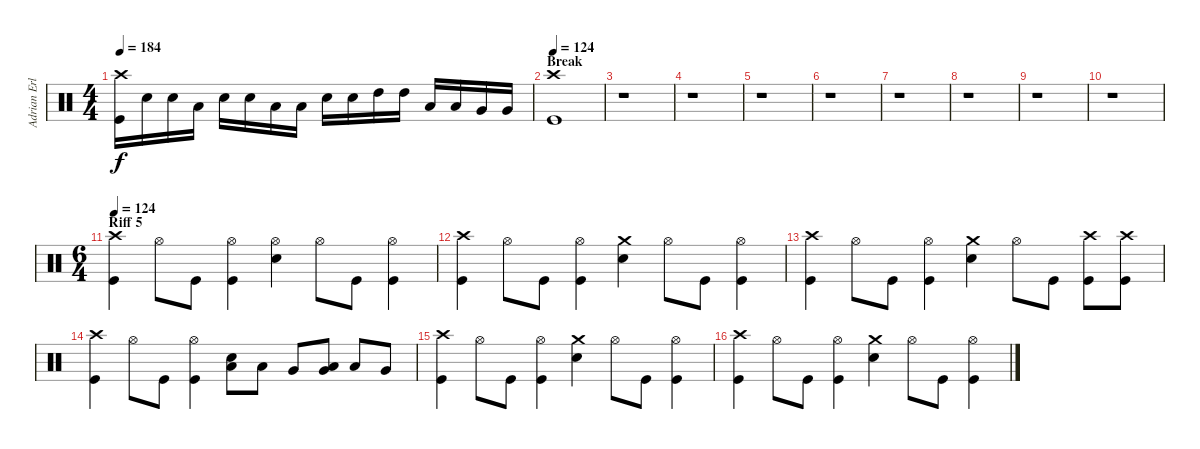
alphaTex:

\track ("Adrian Erlandsson (Norseman of the Apoca" "Adrian Erl") {instrument percussion}
\staff {score}
\articulation defaults
\ts (4 4)
\tempo 184
\clef neutral
\ks c
("Crash high (hit)" "Kick (hit)").16{dy f} "Electric Snare (hit)".16 "Electric Snare (hit)".16 "Low Tom (hit)".16 "Electric Snare (hit)".16 "Electric Snare (hit)".16 "Low Tom (hit)".16 "Low Tom (hit)".16 "Electric Snare (hit)".16 "Electric Snare (hit)".16 "High Tom (hit)".16 "High Tom (hit)".16 "Low Tom (hit)".16 "Low Tom (hit)".16 "Very Low Tom (hit)".16 "Very Low Tom (hit)".16 |
\section ("" "Break")
\tempo 124
("Crash high (hit)" "Kick (hit)").1 |
r.1 |
r.1 |
r.1 |
r.1 |
r.1 |
r.1 |
r.1 |
r.1 |
\ts (6 4)
\section ("" "Riff 5")
\tempo 124
("Crash high (hit)" "Kick (hit)").4 "Hi-Hat (open)".8 "Kick (hit)".8 ("Hi-Hat (open)" "Kick (hit)").4 ("Hi-Hat (open)" "Electric Snare (hit)").4 "Hi-Hat (open)".8 "Kick (hit)".8 ("Hi-Hat (open)" "Kick (hit)").4 |
("Crash high (hit)" "Kick (hit)").4 "Hi-Hat (open)".8 "Kick (hit)".8 ("Hi-Hat (open)" "Kick (hit)").4 ("Crash medium (hit)" "Electric Snare (hit)").4 "Hi-Hat (open)".8 "Kick (hit)".8 ("Hi-Hat (open)" "Kick (hit)").4 |
("Crash high (hit)" "Kick (hit)").4 "Hi-Hat (open)".8 "Kick (hit)".8 ("Hi-Hat (open)" "Kick (hit)").4 ("Crash medium (hit)" "Electric Snare (hit)").4 "Hi-Hat (open)".8 "Kick (hit)".8 ("Crash high (hit)" "Kick (hit)").8 ("Crash high (hit)" "Kick (hit)").8 |
("Crash high (hit)" "Kick (hit)").4 "Hi-Hat (open)".8 "Kick (hit)".8 ("Hi-Hat (open)" "Kick (hit)").4 ("Low Tom (hit)" "Electric Snare (hit)").8 "Low Tom (hit)".8 "Very Low Tom (hit)".8 ("Low Tom (hit)" "Very Low Tom (hit)").8{bu 120} "Low Tom (hit)".8 "Very Low Tom (hit)".8 |
("Crash high (hit)" "Kick (hit)").4 "Hi-Hat (open)".8 "Kick (hit)".8 ("Hi-Hat (open)" "Kick (hit)").4 ("Crash medium (hit)" "Electric Snare (hit)").4 "Hi-Hat (open)".8 "Kick (hit)".8 ("Hi-Hat (open)" "Kick (hit)").4 |
("Crash high (hit)" "Kick (hit)").4 "Hi-Hat (open)".8 "Kick (hit)".8 ("Hi-Hat (open)" "Kick (hit)").4 ("Crash medium (hit)" "Electric Snare (hit)").4 "Hi-Hat (open)".8 "Kick (hit)".8 ("Hi-Hat (open)" "Kick (hit)").4
